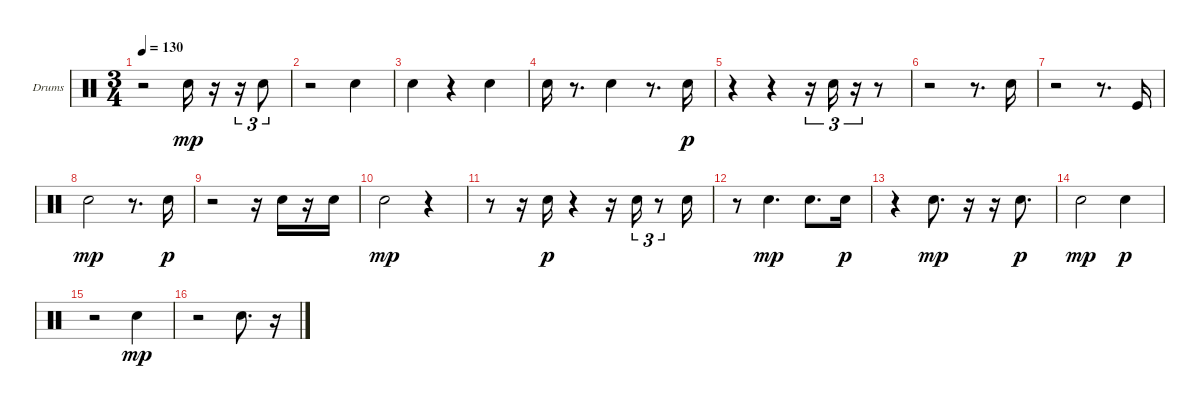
\bracketExtendMode groupsimilarinstruments
\firstSystemTrackNameOrientation horizontal
\otherSystemsTrackNameOrientation horizontal
\track ("Drums" "Drums") {instrument percussion}
\staff {score}
\articulation defaults
\ts (3 4)
\tempo 130
\clef neutral
\ks c
r.2{dy mp} "Snare (hit) 2".16 r.16 r.16{tu (3 2)} "Snare (hit) 2".8{tu (3 2)} |
r.2 "Snare (hit) 2".4 |
"Snare (hit) 2".4 r.4 "Snare (hit) 2".4 |
"Snare (hit) 2".16 r.8{d} "Snare (hit) 2".4 r.8{d} "Snare (hit) 2".16{dy p} |
r.4 r.4 r.16{tu (3 2)} "Snare (hit) 2".16{tu (3 2)} r.16{tu (3 2)} r.8 |
r.2 r.8{d} "Snare (hit) 2".16 |
r.2 r.8{d} "Kick (hit)".16 |
"Snare (hit) 2".2{dy mp} r.8{d} "Snare (hit) 2".16{dy p} |
r.2 r.16 "Snare (hit) 2".16 r.16 "Snare (hit) 2".16 |
"Snare (hit) 2".2{dy mp} r.4 |
r.8 r.16 "Snare (hit) 2".16{dy p} r.4 r.16 "Snare (hit) 2".16{tu (3 2)} r.8{tu (3 2)} "Snare (hit) 2".16 |
r.8 "Snare (hit) 2".4{d dy mp} "Snare (hit) 2".8{d} "Snare (hit) 2".16{dy p} |
r.4 "Snare (hit) 2".8{d dy mp} r.16 r.16 "Snare (hit) 2".8{d dy p} |
"Snare (hit) 2".2{dy mp} "Snare (hit) 2".4{dy p} |
r.2 "Snare (hit) 2".4{dy mp} |
r.2 "Snare (hit) 2".8{d} r.16
